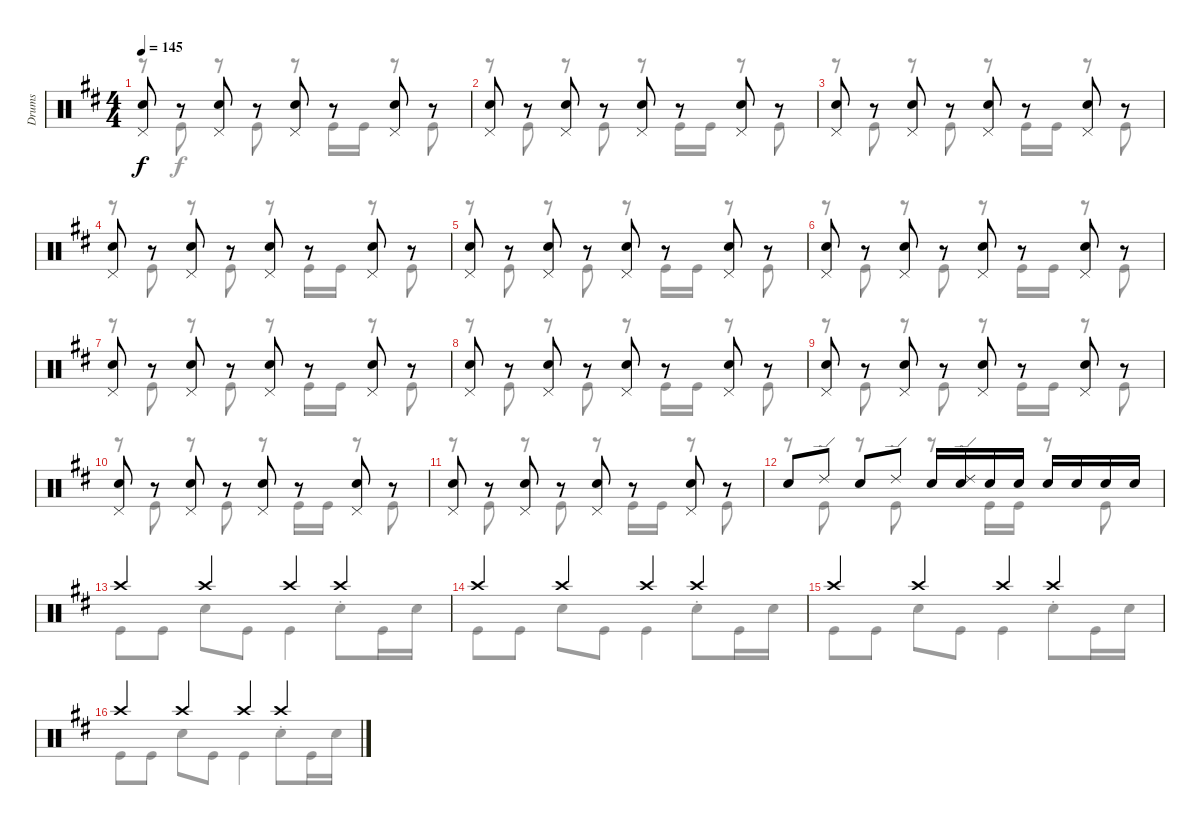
\track ("Drums" "Drums") {instrument percussion}
\staff {score}
\articulation defaults
\voice
\ts (4 4)
\tempo 145
\clef neutral
\ks d
("Pedal Hi-Hat (hit)" "Electric Snare (hit)").8{dy f} r.8 ("Pedal Hi-Hat (hit)" "Electric Snare (hit)").8 r.8 ("Pedal Hi-Hat (hit)" "Electric Snare (hit)").8 r.8 ("Pedal Hi-Hat (hit)" "Electric Snare (hit)").8 r.8 |
("Pedal Hi-Hat (hit)" "Electric Snare (hit)").8 r.8 ("Pedal Hi-Hat (hit)" "Electric Snare (hit)").8 r.8 ("Pedal Hi-Hat (hit)" "Electric Snare (hit)").8 r.8 ("Pedal Hi-Hat (hit)" "Electric Snare (hit)").8 r.8 |
("Pedal Hi-Hat (hit)" "Electric Snare (hit)").8 r.8 ("Pedal Hi-Hat (hit)" "Electric Snare (hit)").8 r.8 ("Pedal Hi-Hat (hit)" "Electric Snare (hit)").8 r.8 ("Pedal Hi-Hat (hit)" "Electric Snare (hit)").8 r.8 |
("Pedal Hi-Hat (hit)" "Electric Snare (hit)").8 r.8 ("Pedal Hi-Hat (hit)" "Electric Snare (hit)").8 r.8 ("Pedal Hi-Hat (hit)" "Electric Snare (hit)").8 r.8 ("Pedal Hi-Hat (hit)" "Electric Snare (hit)").8 r.8 |
("Pedal Hi-Hat (hit)" "Electric Snare (hit)").8 r.8 ("Pedal Hi-Hat (hit)" "Electric Snare (hit)").8 r.8 ("Pedal Hi-Hat (hit)" "Electric Snare (hit)").8 r.8 ("Pedal Hi-Hat (hit)" "Electric Snare (hit)").8 r.8 |
("Pedal Hi-Hat (hit)" "Electric Snare (hit)").8 r.8 ("Pedal Hi-Hat (hit)" "Electric Snare (hit)").8 r.8 ("Pedal Hi-Hat (hit)" "Electric Snare (hit)").8 r.8 ("Pedal Hi-Hat (hit)" "Electric Snare (hit)").8 r.8 |
("Pedal Hi-Hat (hit)" "Electric Snare (hit)").8 r.8 ("Pedal Hi-Hat (hit)" "Electric Snare (hit)").8 r.8 ("Pedal Hi-Hat (hit)" "Electric Snare (hit)").8 r.8 ("Pedal Hi-Hat (hit)" "Electric Snare (hit)").8 r.8 |
("Pedal Hi-Hat (hit)" "Electric Snare (hit)").8 r.8 ("Pedal Hi-Hat (hit)" "Electric Snare (hit)").8 r.8 ("Pedal Hi-Hat (hit)" "Electric Snare (hit)").8 r.8 ("Pedal Hi-Hat (hit)" "Electric Snare (hit)").8 r.8 |
("Pedal Hi-Hat (hit)" "Electric Snare (hit)").8 r.8 ("Pedal Hi-Hat (hit)" "Electric Snare (hit)").8 r.8 ("Pedal Hi-Hat (hit)" "Electric Snare (hit)").8 r.8 ("Pedal Hi-Hat (hit)" "Electric Snare (hit)").8 r.8 |
("Pedal Hi-Hat (hit)" "Electric Snare (hit)").8 r.8 ("Pedal Hi-Hat (hit)" "Electric Snare (hit)").8 r.8 ("Pedal Hi-Hat (hit)" "Electric Snare (hit)").8 r.8 ("Pedal Hi-Hat (hit)" "Electric Snare (hit)").8 r.8 |
("Pedal Hi-Hat (hit)" "Electric Snare (hit)").8 r.8 ("Pedal Hi-Hat (hit)" "Electric Snare (hit)").8 r.8 ("Pedal Hi-Hat (hit)" "Electric Snare (hit)").8 r.8 ("Pedal Hi-Hat (hit)" "Electric Snare (hit)").8 r.8 |
"Electric Snare (hit)".8 "Ride (edge) 2".8 "Electric Snare (hit)".8 "Ride (edge) 2".8 "Electric Snare (hit)".16 ("Ride (edge) 2" "Electric Snare (hit)").16 "Electric Snare (hit)".16 "Electric Snare (hit)".16 "Electric Snare (hit)".16 "Electric Snare (hit)".16 "Electric Snare (hit)".16 "Electric Snare (hit)".16 |
"Crash high (hit)".4 "Crash high (hit)".4 "Crash high (hit)".4 "Crash high (hit)".4 |
"Crash high (hit)".4 "Crash high (hit)".4 "Crash high (hit)".4 "Crash high (hit)".4 |
"Crash high (hit)".4 "Crash high (hit)".4 "Crash high (hit)".4 "Crash high (hit)".4 |
"Crash high (hit)".4 "Crash high (hit)".4 "Crash high (hit)".4 "Crash high (hit)".4
\voice
\clef neutral
\ottava regular
\simile none
\ks d
r.8{dy f} "Kick (hit)".8 r.8 "Kick (hit)".8 r.8 "Kick (hit)".16 "Kick (hit)".16 r.8 "Kick (hit)".8 |
r.8 "Kick (hit)".8 r.8 "Kick (hit)".8 r.8 "Kick (hit)".16 "Kick (hit)".16 r.8 "Kick (hit)".8 |
r.8 "Kick (hit)".8 r.8 "Kick (hit)".8 r.8 "Kick (hit)".16 "Kick (hit)".16 r.8 "Kick (hit)".8 |
r.8 "Kick (hit)".8 r.8 "Kick (hit)".8 r.8 "Kick (hit)".16 "Kick (hit)".16 r.8 "Kick (hit)".8 |
r.8 "Kick (hit)".8 r.8 "Kick (hit)".8 r.8 "Kick (hit)".16 "Kick (hit)".16 r.8 "Kick (hit)".8 |
r.8 "Kick (hit)".8 r.8 "Kick (hit)".8 r.8 "Kick (hit)".16 "Kick (hit)".16 r.8 "Kick (hit)".8 |
r.8 "Kick (hit)".8 r.8 "Kick (hit)".8 r.8 "Kick (hit)".16 "Kick (hit)".16 r.8 "Kick (hit)".8 |
r.8 "Kick (hit)".8 r.8 "Kick (hit)".8 r.8 "Kick (hit)".16 "Kick (hit)".16 r.8 "Kick (hit)".8 |
r.8 "Kick (hit)".8 r.8 "Kick (hit)".8 r.8 "Kick (hit)".16 "Kick (hit)".16 r.8 "Kick (hit)".8 |
r.8 "Kick (hit)".8 r.8 "Kick (hit)".8 r.8 "Kick (hit)".16 "Kick (hit)".16 r.8 "Kick (hit)".8 |
r.8 "Kick (hit)".8 r.8 "Kick (hit)".8 r.8 "Kick (hit)".16 "Kick (hit)".16 r.8 "Kick (hit)".8 |
r.8 "Kick (hit)".8 r.8 "Kick (hit)".8 r.8 "Kick (hit)".16 "Kick (hit)".16 r.8 "Kick (hit)".8 |
"Kick (hit)".8 "Kick (hit)".8 "Electric Snare (hit)".8 "Kick (hit)".8 "Kick (hit)".4 "Electric Snare (hit)"{st}.8 "Kick (hit)".16 "Electric Snare (hit)".16 |
"Kick (hit)".8 "Kick (hit)".8 "Electric Snare (hit)".8 "Kick (hit)".8 "Kick (hit)".4 "Electric Snare (hit)"{st}.8 "Kick (hit)".16 "Electric Snare (hit)".16 |
"Kick (hit)".8 "Kick (hit)".8 "Electric Snare (hit)".8 "Kick (hit)".8 "Kick (hit)".4 "Electric Snare (hit)"{st}.8 "Kick (hit)".16 "Electric Snare (hit)".16 |
"Kick (hit)".8 "Kick (hit)".8 "Electric Snare (hit)".8 "Kick (hit)".8 "Kick (hit)".4 "Electric Snare (hit)"{st}.8 "Kick (hit)".16 "Electric Snare (hit)".16
